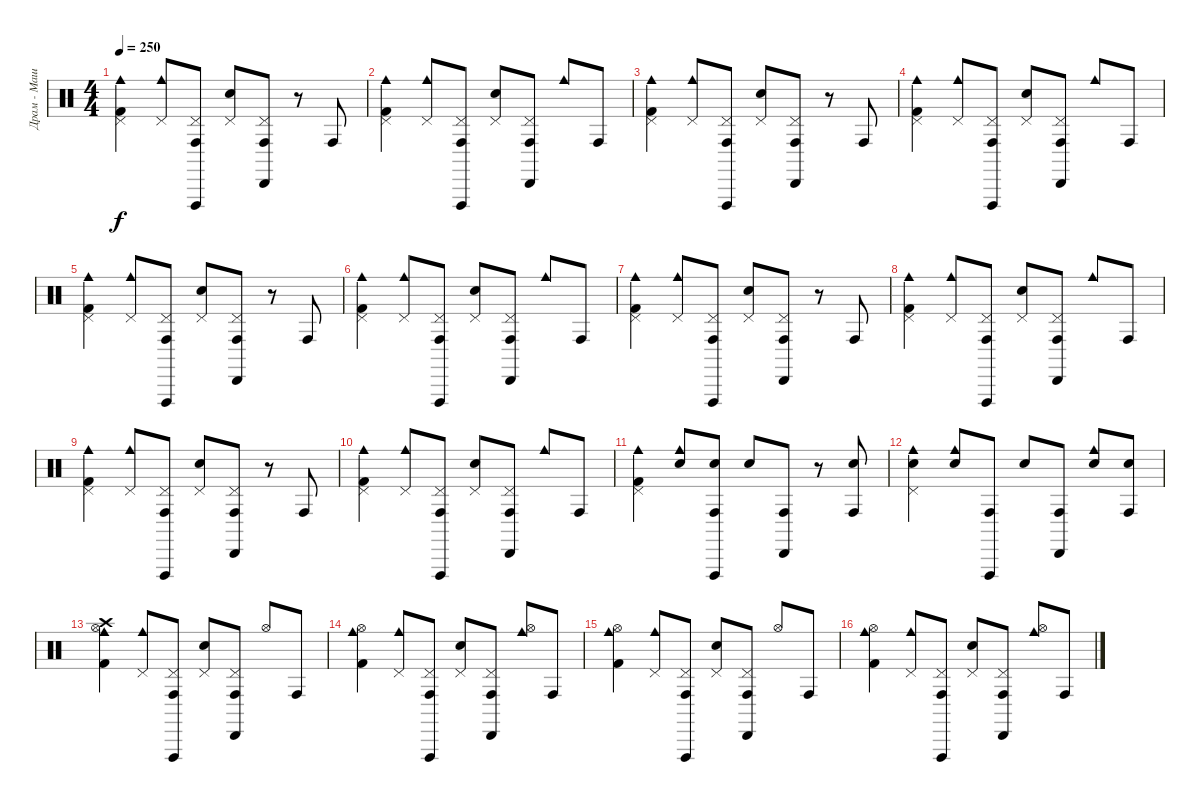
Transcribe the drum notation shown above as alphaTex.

\track ("Драм - Машина" "Драм - Маш") {instrument percussion}
\staff {score}
\articulation defaults
\ts (4 4)
\tempo 250
\clef neutral
\ks c
("Cowbell medium (hit)" "Pedal Hi-Hat (hit)" "Kick (hit) 2").4{dy f} ("Cowbell medium (hit)" "Pedal Hi-Hat (hit)").8 ("Conga high (hit)" "Vibraslap (hit)" "Pedal Hi-Hat (hit)").8 ("Pedal Hi-Hat (hit)" "Snare (hit) 2").8 ("Cabasa (hit)" "Conga high (hit)" "Pedal Hi-Hat (hit)").8 r.8 "Conga high (hit)".8 |
("Cowbell medium (hit)" "Pedal Hi-Hat (hit)" "Kick (hit) 2").4 ("Cowbell medium (hit)" "Pedal Hi-Hat (hit)").8 ("Conga high (hit)" "Vibraslap (hit)" "Pedal Hi-Hat (hit)").8 ("Pedal Hi-Hat (hit)" "Snare (hit) 2").8 ("Cabasa (hit)" "Conga high (hit)" "Pedal Hi-Hat (hit)").8 "Cowbell medium (hit)".8 "Conga high (hit)".8 |
("Cowbell medium (hit)" "Pedal Hi-Hat (hit)" "Kick (hit) 2").4 ("Cowbell medium (hit)" "Pedal Hi-Hat (hit)").8 ("Conga high (hit)" "Vibraslap (hit)" "Pedal Hi-Hat (hit)").8 ("Pedal Hi-Hat (hit)" "Snare (hit) 2").8 ("Cabasa (hit)" "Conga high (hit)" "Pedal Hi-Hat (hit)").8 r.8 "Conga high (hit)".8 |
("Cowbell medium (hit)" "Pedal Hi-Hat (hit)" "Kick (hit) 2").4 ("Cowbell medium (hit)" "Pedal Hi-Hat (hit)").8 ("Conga high (hit)" "Vibraslap (hit)" "Pedal Hi-Hat (hit)").8 ("Pedal Hi-Hat (hit)" "Snare (hit) 2").8 ("Cabasa (hit)" "Conga high (hit)" "Pedal Hi-Hat (hit)").8 "Cowbell medium (hit)".8 "Conga high (hit)".8 |
("Cowbell medium (hit)" "Pedal Hi-Hat (hit)" "Kick (hit) 2").4 ("Cowbell medium (hit)" "Pedal Hi-Hat (hit)").8 ("Conga high (hit)" "Vibraslap (hit)" "Pedal Hi-Hat (hit)").8 ("Pedal Hi-Hat (hit)" "Snare (hit) 2").8 ("Cabasa (hit)" "Conga high (hit)" "Pedal Hi-Hat (hit)").8 r.8 "Conga high (hit)".8 |
("Cowbell medium (hit)" "Pedal Hi-Hat (hit)" "Kick (hit) 2").4 ("Cowbell medium (hit)" "Pedal Hi-Hat (hit)").8 ("Conga high (hit)" "Vibraslap (hit)" "Pedal Hi-Hat (hit)").8 ("Pedal Hi-Hat (hit)" "Snare (hit) 2").8 ("Cabasa (hit)" "Conga high (hit)" "Pedal Hi-Hat (hit)").8 "Cowbell medium (hit)".8 "Conga high (hit)".8 |
("Cowbell medium (hit)" "Pedal Hi-Hat (hit)" "Kick (hit) 2").4 ("Cowbell medium (hit)" "Pedal Hi-Hat (hit)").8 ("Conga high (hit)" "Vibraslap (hit)" "Pedal Hi-Hat (hit)").8 ("Pedal Hi-Hat (hit)" "Snare (hit) 2").8 ("Cabasa (hit)" "Conga high (hit)" "Pedal Hi-Hat (hit)").8 r.8 "Conga high (hit)".8 |
("Cowbell medium (hit)" "Pedal Hi-Hat (hit)" "Kick (hit) 2").4 ("Cowbell medium (hit)" "Pedal Hi-Hat (hit)").8 ("Conga high (hit)" "Vibraslap (hit)" "Pedal Hi-Hat (hit)").8 ("Pedal Hi-Hat (hit)" "Snare (hit) 2").8 ("Cabasa (hit)" "Conga high (hit)" "Pedal Hi-Hat (hit)").8 "Cowbell medium (hit)".8 "Conga high (hit)".8 |
("Cowbell medium (hit)" "Pedal Hi-Hat (hit)" "Kick (hit) 2").4 ("Cowbell medium (hit)" "Pedal Hi-Hat (hit)").8 ("Conga high (hit)" "Vibraslap (hit)" "Pedal Hi-Hat (hit)").8 ("Pedal Hi-Hat (hit)" "Snare (hit) 2").8 ("Cabasa (hit)" "Conga high (hit)" "Pedal Hi-Hat (hit)").8 r.8 "Conga high (hit)".8 |
("Cowbell medium (hit)" "Pedal Hi-Hat (hit)" "Kick (hit) 2").4 ("Cowbell medium (hit)" "Pedal Hi-Hat (hit)").8 ("Conga high (hit)" "Vibraslap (hit)" "Pedal Hi-Hat (hit)").8 ("Pedal Hi-Hat (hit)" "Snare (hit) 2").8 ("Cabasa (hit)" "Conga high (hit)" "Pedal Hi-Hat (hit)").8 "Cowbell medium (hit)".8 "Conga high (hit)".8 |
("Cowbell medium (hit)" "Pedal Hi-Hat (hit)" "Kick (hit) 2").4 ("Cowbell medium (hit)" "Electric Snare (hit)").8 ("Conga high (hit)" "Vibraslap (hit)" "Electric Snare (hit)").8 "Electric Snare (hit)".8 ("Cabasa (hit)" "Conga high (hit)").8 r.8 ("Conga high (hit)" "Electric Snare (hit)").8 |
("Cowbell medium (hit)" "Pedal Hi-Hat (hit)" "Electric Snare (hit)").4 ("Cowbell medium (hit)" "Electric Snare (hit)").8 ("Conga high (hit)" "Vibraslap (hit)").8 "Electric Snare (hit)".8 ("Cabasa (hit)" "Conga high (hit)").8 ("Cowbell medium (hit)" "Electric Snare (hit)").8 ("Conga high (hit)" "Electric Snare (hit)").8 |
("Cowbell medium (hit)" "Crash high (hit)" "Hi-Hat (open)" "Kick (hit) 2").4 ("Cowbell medium (hit)" "Pedal Hi-Hat (hit)").8 ("Conga high (hit)" "Vibraslap (hit)" "Pedal Hi-Hat (hit)").8 ("Pedal Hi-Hat (hit)" "Snare (hit) 2").8 ("Cabasa (hit)" "Conga high (hit)" "Pedal Hi-Hat (hit)").8 "Hi-Hat (open)".8 "Conga high (hit)".8 |
("Cowbell medium (hit)" "Hi-Hat (open)" "Kick (hit) 2").4 ("Cowbell medium (hit)" "Pedal Hi-Hat (hit)").8 ("Conga high (hit)" "Vibraslap (hit)" "Pedal Hi-Hat (hit)").8 ("Pedal Hi-Hat (hit)" "Snare (hit) 2").8 ("Cabasa (hit)" "Conga high (hit)" "Pedal Hi-Hat (hit)").8 ("Cowbell medium (hit)" "Hi-Hat (open)").8 "Conga high (hit)".8 |
("Cowbell medium (hit)" "Hi-Hat (open)" "Kick (hit) 2").4 ("Cowbell medium (hit)" "Pedal Hi-Hat (hit)").8 ("Conga high (hit)" "Vibraslap (hit)" "Pedal Hi-Hat (hit)").8 ("Pedal Hi-Hat (hit)" "Snare (hit) 2").8 ("Cabasa (hit)" "Conga high (hit)" "Pedal Hi-Hat (hit)").8 "Hi-Hat (open)".8 "Conga high (hit)".8 |
("Cowbell medium (hit)" "Hi-Hat (open)" "Kick (hit) 2").4 ("Cowbell medium (hit)" "Pedal Hi-Hat (hit)").8 ("Conga high (hit)" "Vibraslap (hit)" "Pedal Hi-Hat (hit)").8 ("Pedal Hi-Hat (hit)" "Snare (hit) 2").8 ("Cabasa (hit)" "Conga high (hit)" "Pedal Hi-Hat (hit)").8 ("Cowbell medium (hit)" "Hi-Hat (open)").8 "Conga high (hit)".8
